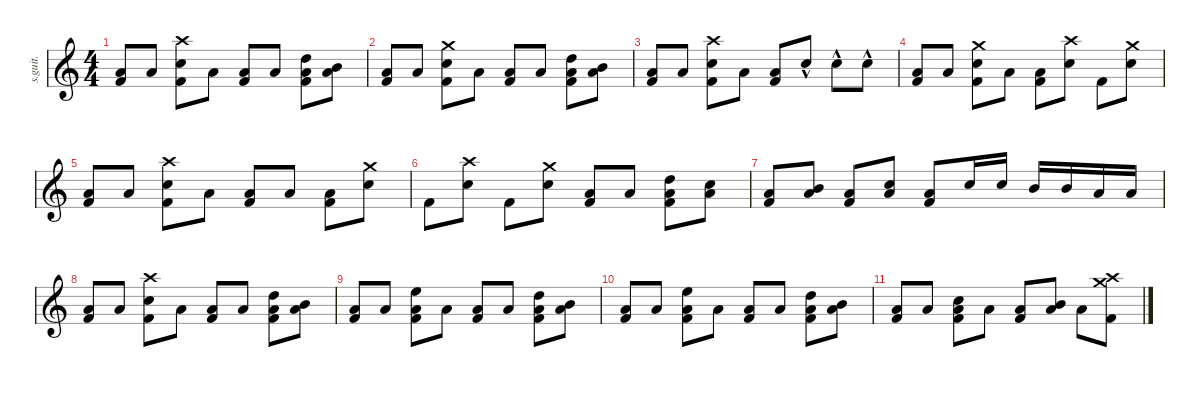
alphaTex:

\defaultSystemsLayout 4
\hideDynamics
\bracketExtendMode nobrackets
\track ("Lars Ulrich" "s.guit.") {instrument percussion}
\staff {score}
\articulation defaults
\ts (4 4)
\tempo (124 hide)
\clef g2
\ks c
("Low Floor Tom (hit)" "Kick (hit) 2").8{lyrics (0 "") lyrics (1 "") lyrics (2 "") lyrics (3 "") lyrics (4 "") dy f} "Low Floor Tom (hit)".8{lyrics (0 "") lyrics (1 "") lyrics (2 "") lyrics (3 "") lyrics (4 "") dy ff} ("Kick (hit) 2" "Snare (hit) 2" "Crash high (hit)").8{lyrics (0 "") lyrics (1 "") lyrics (2 "") lyrics (3 "") lyrics (4 "") dy f} "Low Floor Tom (hit)".8{lyrics (0 "") lyrics (1 "") lyrics (2 "") lyrics (3 "") lyrics (4 "") dy ff} ("Low Floor Tom (hit)" "Kick (hit) 2").8{lyrics (0 "") lyrics (1 "") lyrics (2 "") lyrics (3 "") lyrics (4 "") dy f} "Low Floor Tom (hit)".8{lyrics (0 "") lyrics (1 "") lyrics (2 "") lyrics (3 "") lyrics (4 "") dy ff} ("Low Floor Tom (hit)" "Kick (hit) 2" "High Tom (hit)").8{lyrics (0 "") lyrics (1 "") lyrics (2 "") lyrics (3 "") lyrics (4 "") dy f} ("Mid Tom (hit)" "Low Floor Tom (hit)").8{lyrics (0 "") lyrics (1 "") lyrics (2 "") lyrics (3 "") lyrics (4 "") dy ff} |
("Low Floor Tom (hit)" "Kick (hit) 2").8{lyrics (0 "") lyrics (1 "") lyrics (2 "") lyrics (3 "") lyrics (4 "") dy f} "Low Floor Tom (hit)".8{lyrics (0 "") lyrics (1 "") lyrics (2 "") lyrics (3 "") lyrics (4 "") dy mf} ("Snare (hit) 2" "Crash medium (hit)" "Kick (hit) 2").8{lyrics (0 "") lyrics (1 "") lyrics (2 "") lyrics (3 "") lyrics (4 "") dy f} "Low Floor Tom (hit)".8{lyrics (0 "") lyrics (1 "") lyrics (2 "") lyrics (3 "") lyrics (4 "") dy mf} ("Low Floor Tom (hit)" "Kick (hit) 2").8{lyrics (0 "") lyrics (1 "") lyrics (2 "") lyrics (3 "") lyrics (4 "") dy f} "Low Floor Tom (hit)".8{lyrics (0 "") lyrics (1 "") lyrics (2 "") lyrics (3 "") lyrics (4 "") dy mf} ("Low Floor Tom (hit)" "Kick (hit) 2" "High Tom (hit)").8{lyrics (0 "") lyrics (1 "") lyrics (2 "") lyrics (3 "") lyrics (4 "") dy f} ("Mid Tom (hit)" "Low Floor Tom (hit)").8{lyrics (0 "") lyrics (1 "") lyrics (2 "") lyrics (3 "") lyrics (4 "")} |
("Low Floor Tom (hit)" "Kick (hit) 2").8{lyrics (0 "") lyrics (1 "") lyrics (2 "") lyrics (3 "") lyrics (4 "")} "Low Floor Tom (hit)".8{lyrics (0 "") lyrics (1 "") lyrics (2 "") lyrics (3 "") lyrics (4 "")} ("Kick (hit) 2" "Snare (hit) 2" "Crash high (hit)").8{lyrics (0 "") lyrics (1 "") lyrics (2 "") lyrics (3 "") lyrics (4 "")} "Low Floor Tom (hit)".8{lyrics (0 "") lyrics (1 "") lyrics (2 "") lyrics (3 "") lyrics (4 "") dy mf} ("Low Floor Tom (hit)" "Kick (hit) 2").8{lyrics (0 "") lyrics (1 "") lyrics (2 "") lyrics (3 "") lyrics (4 "") dy f} "Snare (hit) 2"{hac}.8{lyrics (0 "") lyrics (1 "") lyrics (2 "") lyrics (3 "") lyrics (4 "") dy mf} "Snare (hit) 2"{hac}.8{lyrics (0 "") lyrics (1 "") lyrics (2 "") lyrics (3 "") lyrics (4 "") dy f} "Snare (hit) 2"{hac}.8{lyrics (0 "") lyrics (1 "") lyrics (2 "") lyrics (3 "") lyrics (4 "") dy ff} |
("Low Floor Tom (hit)" "Kick (hit) 2").8{lyrics (0 "") lyrics (1 "") lyrics (2 "") lyrics (3 "") lyrics (4 "")} "Low Floor Tom (hit)".8{lyrics (0 "") lyrics (1 "") lyrics (2 "") lyrics (3 "") lyrics (4 "")} ("Kick (hit) 2" "Snare (hit) 2" "Crash medium (hit)").8{lyrics (0 "") lyrics (1 "") lyrics (2 "") lyrics (3 "") lyrics (4 "")} "Low Floor Tom (hit)".8{lyrics (0 "") lyrics (1 "") lyrics (2 "") lyrics (3 "") lyrics (4 "") dy mf} ("Low Floor Tom (hit)" "Kick (hit) 2").8{lyrics (0 "") lyrics (1 "") lyrics (2 "") lyrics (3 "") lyrics (4 "") dy f} ("Snare (hit) 2" "Crash high (hit)").8{lyrics (0 "") lyrics (1 "") lyrics (2 "") lyrics (3 "") lyrics (4 "") dy mf} "Kick (hit) 2".8{lyrics (0 "") lyrics (1 "") lyrics (2 "") lyrics (3 "") lyrics (4 "") dy f} ("Snare (hit) 2" "Crash medium (hit)").8{lyrics (0 "") lyrics (1 "") lyrics (2 "") lyrics (3 "") lyrics (4 "") dy ff} |
("Low Floor Tom (hit)" "Kick (hit) 2").8{lyrics (0 "") lyrics (1 "") lyrics (2 "") lyrics (3 "") lyrics (4 "") dy f} "Low Floor Tom (hit)".8{lyrics (0 "") lyrics (1 "") lyrics (2 "") lyrics (3 "") lyrics (4 "") dy ff} ("Snare (hit) 2" "Crash high (hit)" "Kick (hit) 2").8{lyrics (0 "") lyrics (1 "") lyrics (2 "") lyrics (3 "") lyrics (4 "") dy f} "Low Floor Tom (hit)".8{lyrics (0 "") lyrics (1 "") lyrics (2 "") lyrics (3 "") lyrics (4 "") dy ff} ("Low Floor Tom (hit)" "Kick (hit) 2").8{lyrics (0 "") lyrics (1 "") lyrics (2 "") lyrics (3 "") lyrics (4 "") dy f} "Low Floor Tom (hit)".8{lyrics (0 "") lyrics (1 "") lyrics (2 "") lyrics (3 "") lyrics (4 "") dy ff} ("Low Floor Tom (hit)" "Kick (hit) 2").8{lyrics (0 "") lyrics (1 "") lyrics (2 "") lyrics (3 "") lyrics (4 "") dy f} ("Snare (hit) 2" "Crash medium (hit)").8{lyrics (0 "") lyrics (1 "") lyrics (2 "") lyrics (3 "") lyrics (4 "") dy ff} |
"Kick (hit) 2".8{lyrics (0 "") lyrics (1 "") lyrics (2 "") lyrics (3 "") lyrics (4 "") dy f} ("Snare (hit) 2" "Crash high (hit)").8{lyrics (0 "") lyrics (1 "") lyrics (2 "") lyrics (3 "") lyrics (4 "") dy ff} "Kick (hit) 2".8{lyrics (0 "") lyrics (1 "") lyrics (2 "") lyrics (3 "") lyrics (4 "") dy f} ("Snare (hit) 2" "Crash medium (hit)").8{lyrics (0 "") lyrics (1 "") lyrics (2 "") lyrics (3 "") lyrics (4 "") dy ff} ("Low Floor Tom (hit)" "Kick (hit) 2").8{lyrics (0 "") lyrics (1 "") lyrics (2 "") lyrics (3 "") lyrics (4 "") dy f} "Low Floor Tom (hit)".8{lyrics (0 "") lyrics (1 "") lyrics (2 "") lyrics (3 "") lyrics (4 "") dy ff} ("Low Floor Tom (hit)" "Kick (hit) 2" "High Tom (hit)").8{lyrics (0 "") lyrics (1 "") lyrics (2 "") lyrics (3 "") lyrics (4 "") dy f} ("Low Floor Tom (hit)" "Snare (hit) 2").8{lyrics (0 "") lyrics (1 "") lyrics (2 "") lyrics (3 "") lyrics (4 "") dy ff} |
("Low Floor Tom (hit)" "Kick (hit) 2").8{lyrics (0 "") lyrics (1 "") lyrics (2 "") lyrics (3 "") lyrics (4 "") dy f} ("Mid Tom (hit)" "Low Floor Tom (hit)").8{lyrics (0 "") lyrics (1 "") lyrics (2 "") lyrics (3 "") lyrics (4 "") dy mf} ("Low Floor Tom (hit)" "Kick (hit) 2").8{lyrics (0 "") lyrics (1 "") lyrics (2 "") lyrics (3 "") lyrics (4 "") dy f} ("Low Floor Tom (hit)" "Snare (hit) 2").8{lyrics (0 "") lyrics (1 "") lyrics (2 "") lyrics (3 "") lyrics (4 "") dy mf} ("Kick (hit) 2" "Low Floor Tom (hit)").8{lyrics (0 "") lyrics (1 "") lyrics (2 "") lyrics (3 "") lyrics (4 "") dy f} "Snare (hit) 2".16{lyrics (0 "") lyrics (1 "") lyrics (2 "") lyrics (3 "") lyrics (4 "") dy ff} "Snare (hit) 2".16{lyrics (0 "") lyrics (1 "") lyrics (2 "") lyrics (3 "") lyrics (4 "") dy f} "Mid Tom (hit)".16{lyrics (0 "") lyrics (1 "") lyrics (2 "") lyrics (3 "") lyrics (4 "") dy ff} "Mid Tom (hit)".16{lyrics (0 "") lyrics (1 "") lyrics (2 "") lyrics (3 "") lyrics (4 "")} "Low Floor Tom (hit)".16{lyrics (0 "") lyrics (1 "") lyrics (2 "") lyrics (3 "") lyrics (4 "")} "Low Floor Tom (hit)".16{lyrics (0 "") lyrics (1 "") lyrics (2 "") lyrics (3 "") lyrics (4 "")} |
("Low Floor Tom (hit)" "Kick (hit) 2").8{lyrics (0 "") lyrics (1 "") lyrics (2 "") lyrics (3 "") lyrics (4 "")} "Low Floor Tom (hit)".8{lyrics (0 "") lyrics (1 "") lyrics (2 "") lyrics (3 "") lyrics (4 "")} ("Kick (hit) 2" "Snare (hit) 2" "Crash high (hit)").8{lyrics (0 "") lyrics (1 "") lyrics (2 "") lyrics (3 "") lyrics (4 "")} "Low Floor Tom (hit)".8{lyrics (0 "") lyrics (1 "") lyrics (2 "") lyrics (3 "") lyrics (4 "") dy mf} ("Low Floor Tom (hit)" "Kick (hit) 2").8{lyrics (0 "") lyrics (1 "") lyrics (2 "") lyrics (3 "") lyrics (4 "") dy f} "Low Floor Tom (hit)".8{lyrics (0 "") lyrics (1 "") lyrics (2 "") lyrics (3 "") lyrics (4 "") dy mf} ("Low Floor Tom (hit)" "Kick (hit) 2" "High Tom (hit)").8{lyrics (0 "") lyrics (1 "") lyrics (2 "") lyrics (3 "") lyrics (4 "") dy f} ("Low Floor Tom (hit)" "Mid Tom (hit)").8{lyrics (0 "") lyrics (1 "") lyrics (2 "") lyrics (3 "") lyrics (4 "") dy ff} |
("Low Floor Tom (hit)" "Kick (hit) 2").8{lyrics (0 "") lyrics (1 "") lyrics (2 "") lyrics (3 "") lyrics (4 "") dy f} "Low Floor Tom (hit)".8{lyrics (0 "") lyrics (1 "") lyrics (2 "") lyrics (3 "") lyrics (4 "") dy ff} ("Low Floor Tom (hit)" "Kick (hit) 2" "High Floor Tom (hit)").8{lyrics (0 "") lyrics (1 "") lyrics (2 "") lyrics (3 "") lyrics (4 "") dy f} "Low Floor Tom (hit)".8{lyrics (0 "") lyrics (1 "") lyrics (2 "") lyrics (3 "") lyrics (4 "") dy ff} ("Low Floor Tom (hit)" "Kick (hit) 2").8{lyrics (0 "") lyrics (1 "") lyrics (2 "") lyrics (3 "") lyrics (4 "") dy f} "Low Floor Tom (hit)".8{lyrics (0 "") lyrics (1 "") lyrics (2 "") lyrics (3 "") lyrics (4 "") dy ff} ("Low Floor Tom (hit)" "Kick (hit) 2" "High Tom (hit)").8{lyrics (0 "") lyrics (1 "") lyrics (2 "") lyrics (3 "") lyrics (4 "") dy f} ("Low Floor Tom (hit)" "Mid Tom (hit)").8{lyrics (0 "") lyrics (1 "") lyrics (2 "") lyrics (3 "") lyrics (4 "") dy ff} |
("Low Floor Tom (hit)" "Kick (hit) 2").8{lyrics (0 "") lyrics (1 "") lyrics (2 "") lyrics (3 "") lyrics (4 "") dy f} "Low Floor Tom (hit)".8{lyrics (0 "") lyrics (1 "") lyrics (2 "") lyrics (3 "") lyrics (4 "") dy mf} ("Low Floor Tom (hit)" "Kick (hit) 2" "High Floor Tom (hit)").8{lyrics (0 "") lyrics (1 "") lyrics (2 "") lyrics (3 "") lyrics (4 "") dy f} "Low Floor Tom (hit)".8{lyrics (0 "") lyrics (1 "") lyrics (2 "") lyrics (3 "") lyrics (4 "") dy mf} ("Low Floor Tom (hit)" "Kick (hit) 2").8{lyrics (0 "") lyrics (1 "") lyrics (2 "") lyrics (3 "") lyrics (4 "") dy f} "Low Floor Tom (hit)".8{lyrics (0 "") lyrics (1 "") lyrics (2 "") lyrics (3 "") lyrics (4 "") dy ff} ("Low Floor Tom (hit)" "High Tom (hit)" "Kick (hit) 2").8{lyrics (0 "") lyrics (1 "") lyrics (2 "") lyrics (3 "") lyrics (4 "") dy f} ("Low Floor Tom (hit)" "Mid Tom (hit)").8{lyrics (0 "") lyrics (1 "") lyrics (2 "") lyrics (3 "") lyrics (4 "") dy ff} |
("Low Floor Tom (hit)" "Kick (hit) 2").8{lyrics (0 "") lyrics (1 "") lyrics (2 "") lyrics (3 "") lyrics (4 "") dy f} "Low Floor Tom (hit)".8{lyrics (0 "") lyrics (1 "") lyrics (2 "") lyrics (3 "") lyrics (4 "") dy mf} ("Low Floor Tom (hit)" "Kick (hit) 2" "Snare (hit) 2").8{lyrics (0 "") lyrics (1 "") lyrics (2 "") lyrics (3 "") lyrics (4 "") dy f} "Low Floor Tom (hit)".8{lyrics (0 "") lyrics (1 "") lyrics (2 "") lyrics (3 "") lyrics (4 "") dy mf} ("Low Floor Tom (hit)" "Kick (hit) 2").8{lyrics (0 "") lyrics (1 "") lyrics (2 "") lyrics (3 "") lyrics (4 "") dy f} ("Low Floor Tom (hit)" "Mid Tom (hit)").8{lyrics (0 "") lyrics (1 "") lyrics (2 "") lyrics (3 "") lyrics (4 "") dy ff} "Low Floor Tom (hit)".8{lyrics (0 "") lyrics (1 "") lyrics (2 "") lyrics (3 "") lyrics (4 "") dy f} ("Kick (hit) 2" "Crash medium (hit)" "Crash high (hit)").8{lyrics (0 "") lyrics (1 "") lyrics (2 "") lyrics (3 "") lyrics (4 "") dy ff}
